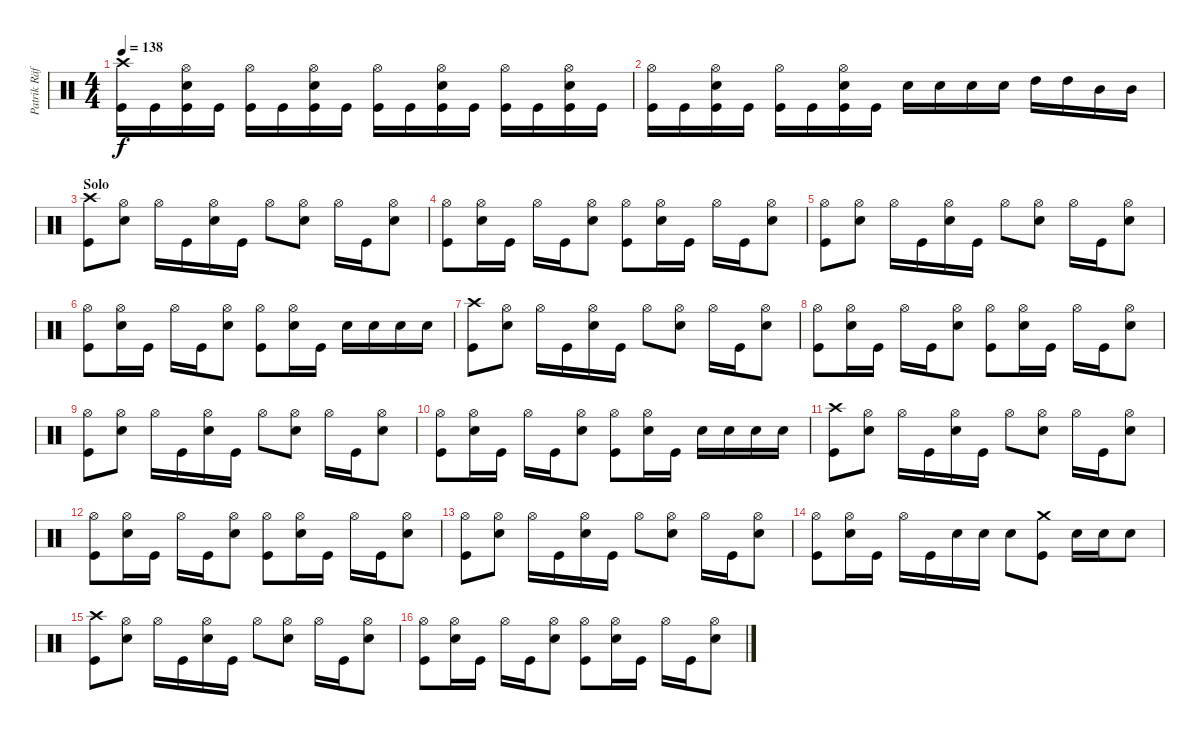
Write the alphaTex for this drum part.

\track ("Patrik Räfling" "Patrik Räf") {instrument percussion}
\staff {score}
\articulation defaults
\ts (4 4)
\tempo 138
\clef neutral
\ks c
("Crash high (hit)" "Kick (hit)").16{dy f} "Kick (hit)".16 ("Hi-Hat (open)" "Snare (hit) 2" "Kick (hit)").16 "Kick (hit)".16 ("Hi-Hat (open)" "Kick (hit)").16 "Kick (hit)".16 ("Hi-Hat (open)" "Snare (hit) 2" "Kick (hit)").16 "Kick (hit)".16 ("Hi-Hat (open)" "Kick (hit)").16 "Kick (hit)".16 ("Hi-Hat (open)" "Snare (hit) 2" "Kick (hit)").16 "Kick (hit)".16 ("Hi-Hat (open)" "Kick (hit)").16 "Kick (hit)".16 ("Hi-Hat (open)" "Snare (hit) 2" "Kick (hit)").16 "Kick (hit)".16 |
("Hi-Hat (open)" "Kick (hit)").16 "Kick (hit)".16 ("Hi-Hat (open)" "Snare (hit) 2" "Kick (hit)").16 "Kick (hit)".16 ("Hi-Hat (open)" "Kick (hit)").16 "Kick (hit)".16 ("Hi-Hat (open)" "Snare (hit) 2" "Kick (hit)").16 "Kick (hit)".16 "Snare (hit) 2".16 "Snare (hit) 2".16 "Snare (hit) 2".16 "Snare (hit) 2".16 "High Tom (hit)".16 "High Tom (hit)".16 "Mid Tom (hit)".16 "Mid Tom (hit)".16 |
\section ("" "Solo")
("Crash high (hit)" "Kick (hit)").8 ("Hi-Hat (open)" "Snare (hit) 2").8 "Hi-Hat (open)".16 "Kick (hit)".16 ("Hi-Hat (open)" "Snare (hit) 2").16 "Kick (hit)".16 "Hi-Hat (open)".8 ("Hi-Hat (open)" "Snare (hit) 2").8 "Hi-Hat (open)".16 "Kick (hit)".16 ("Hi-Hat (open)" "Snare (hit) 2").8 |
("Hi-Hat (open)" "Kick (hit)").8 ("Hi-Hat (open)" "Snare (hit) 2").16 "Kick (hit)".16 "Hi-Hat (open)".16 "Kick (hit)".16 ("Hi-Hat (open)" "Snare (hit) 2").8 ("Hi-Hat (open)" "Kick (hit)").8 ("Hi-Hat (open)" "Snare (hit) 2").16 "Kick (hit)".16 "Hi-Hat (open)".16 "Kick (hit)".16 ("Hi-Hat (open)" "Snare (hit) 2").8 |
("Hi-Hat (open)" "Kick (hit)").8 ("Hi-Hat (open)" "Snare (hit) 2").8 "Hi-Hat (open)".16 "Kick (hit)".16 ("Hi-Hat (open)" "Snare (hit) 2").16 "Kick (hit)".16 "Hi-Hat (open)".8 ("Hi-Hat (open)" "Snare (hit) 2").8 "Hi-Hat (open)".16 "Kick (hit)".16 ("Hi-Hat (open)" "Snare (hit) 2").8 |
("Hi-Hat (open)" "Kick (hit)").8 ("Hi-Hat (open)" "Snare (hit) 2").16 "Kick (hit)".16 "Hi-Hat (open)".16 "Kick (hit)".16 ("Hi-Hat (open)" "Snare (hit) 2").8 ("Hi-Hat (open)" "Kick (hit)").8 ("Hi-Hat (open)" "Snare (hit) 2").16 "Kick (hit)".16 "Snare (hit) 2".16 "Snare (hit) 2".16 "Snare (hit) 2".16 "Snare (hit) 2".16 |
("Crash high (hit)" "Kick (hit)").8 ("Hi-Hat (open)" "Snare (hit) 2").8 "Hi-Hat (open)".16 "Kick (hit)".16 ("Hi-Hat (open)" "Snare (hit) 2").16 "Kick (hit)".16 "Hi-Hat (open)".8 ("Hi-Hat (open)" "Snare (hit) 2").8 "Hi-Hat (open)".16 "Kick (hit)".16 ("Hi-Hat (open)" "Snare (hit) 2").8 |
("Hi-Hat (open)" "Kick (hit)").8 ("Hi-Hat (open)" "Snare (hit) 2").16 "Kick (hit)".16 "Hi-Hat (open)".16 "Kick (hit)".16 ("Hi-Hat (open)" "Snare (hit) 2").8 ("Hi-Hat (open)" "Kick (hit)").8 ("Hi-Hat (open)" "Snare (hit) 2").16 "Kick (hit)".16 "Hi-Hat (open)".16 "Kick (hit)".16 ("Hi-Hat (open)" "Snare (hit) 2").8 |
("Hi-Hat (open)" "Kick (hit)").8 ("Hi-Hat (open)" "Snare (hit) 2").8 "Hi-Hat (open)".16 "Kick (hit)".16 ("Hi-Hat (open)" "Snare (hit) 2").16 "Kick (hit)".16 "Hi-Hat (open)".8 ("Hi-Hat (open)" "Snare (hit) 2").8 "Hi-Hat (open)".16 "Kick (hit)".16 ("Hi-Hat (open)" "Snare (hit) 2").8 |
("Hi-Hat (open)" "Kick (hit)").8 ("Hi-Hat (open)" "Snare (hit) 2").16 "Kick (hit)".16 "Hi-Hat (open)".16 "Kick (hit)".16 ("Hi-Hat (open)" "Snare (hit) 2").8 ("Hi-Hat (open)" "Kick (hit)").8 ("Hi-Hat (open)" "Snare (hit) 2").16 "Kick (hit)".16 "Snare (hit) 2".16 "Snare (hit) 2".16 "Snare (hit) 2".16 "Snare (hit) 2".16 |
("Crash high (hit)" "Kick (hit)").8 ("Hi-Hat (open)" "Snare (hit) 2").8 "Hi-Hat (open)".16 "Kick (hit)".16 ("Hi-Hat (open)" "Snare (hit) 2").16 "Kick (hit)".16 "Hi-Hat (open)".8 ("Hi-Hat (open)" "Snare (hit) 2").8 "Hi-Hat (open)".16 "Kick (hit)".16 ("Hi-Hat (open)" "Snare (hit) 2").8 |
("Hi-Hat (open)" "Kick (hit)").8 ("Hi-Hat (open)" "Snare (hit) 2").16 "Kick (hit)".16 "Hi-Hat (open)".16 "Kick (hit)".16 ("Hi-Hat (open)" "Snare (hit) 2").8 ("Hi-Hat (open)" "Kick (hit)").8 ("Hi-Hat (open)" "Snare (hit) 2").16 "Kick (hit)".16 "Hi-Hat (open)".16 "Kick (hit)".16 ("Hi-Hat (open)" "Snare (hit) 2").8 |
("Hi-Hat (open)" "Kick (hit)").8 ("Hi-Hat (open)" "Snare (hit) 2").8 "Hi-Hat (open)".16 "Kick (hit)".16 ("Hi-Hat (open)" "Snare (hit) 2").16 "Kick (hit)".16 "Hi-Hat (open)".8 ("Hi-Hat (open)" "Snare (hit) 2").8 "Hi-Hat (open)".16 "Kick (hit)".16 ("Hi-Hat (open)" "Snare (hit) 2").8 |
("Hi-Hat (open)" "Kick (hit)").8 ("Hi-Hat (open)" "Snare (hit) 2").16 "Kick (hit)".16 "Hi-Hat (open)".16 "Kick (hit)".16 "Snare (hit) 2".16 "Snare (hit) 2".16 "Snare (hit) 2".8 ("Crash medium (hit)" "Kick (hit)").8 "Snare (hit) 2".16 "Snare (hit) 2".16 "Snare (hit) 2".8 |
("Crash high (hit)" "Kick (hit)").8 ("Hi-Hat (open)" "Snare (hit) 2").8 "Hi-Hat (open)".16 "Kick (hit)".16 ("Hi-Hat (open)" "Snare (hit) 2").16 "Kick (hit)".16 "Hi-Hat (open)".8 ("Hi-Hat (open)" "Snare (hit) 2").8 "Hi-Hat (open)".16 "Kick (hit)".16 ("Hi-Hat (open)" "Snare (hit) 2").8 |
("Hi-Hat (open)" "Kick (hit)").8 ("Hi-Hat (open)" "Snare (hit) 2").16 "Kick (hit)".16 "Hi-Hat (open)".16 "Kick (hit)".16 ("Hi-Hat (open)" "Snare (hit) 2").8 ("Hi-Hat (open)" "Kick (hit)").8 ("Hi-Hat (open)" "Snare (hit) 2").16 "Kick (hit)".16 "Hi-Hat (open)".16 "Kick (hit)".16 ("Hi-Hat (open)" "Snare (hit) 2").8
